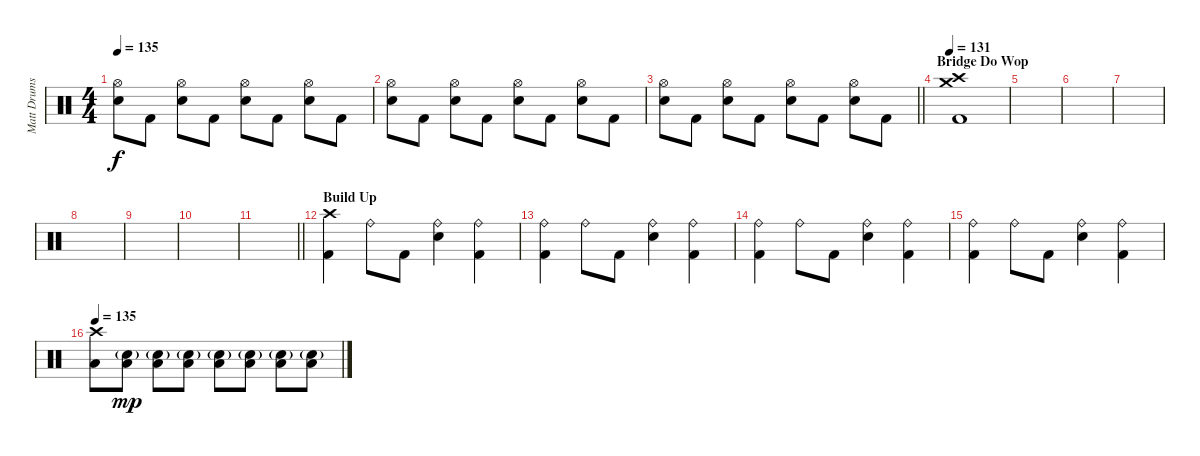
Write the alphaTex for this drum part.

\track ("Matt Drums" "Matt Drums") {instrument percussion}
\staff {score}
\articulation defaults
\ts (4 4)
\tempo 135
\clef neutral
\ks c
("Hi-Hat (open)" "Snare (hit) 2").8{dy f} "Kick (hit) 2".8 ("Hi-Hat (open)" "Snare (hit) 2").8 "Kick (hit) 2".8 ("Hi-Hat (open)" "Snare (hit) 2").8 "Kick (hit) 2".8 ("Hi-Hat (open)" "Snare (hit) 2").8 "Kick (hit) 2".8 |
("Hi-Hat (open)" "Snare (hit) 2").8 "Kick (hit) 2".8 ("Hi-Hat (open)" "Snare (hit) 2").8 "Kick (hit) 2".8 ("Hi-Hat (open)" "Snare (hit) 2").8 "Kick (hit) 2".8 ("Hi-Hat (open)" "Snare (hit) 2").8 "Kick (hit) 2".8 |
\barLineRight lightlight
("Hi-Hat (open)" "Snare (hit) 2").8 "Kick (hit) 2".8 ("Hi-Hat (open)" "Snare (hit) 2").8 "Kick (hit) 2".8 ("Hi-Hat (open)" "Snare (hit) 2").8 "Kick (hit) 2".8 ("Hi-Hat (open)" "Snare (hit) 2").8 "Kick (hit) 2".8 |
\section ("" "Bridge Do Wop")
\tempo 131
("Crash medium (hit)" "Crash high (hit)" "Kick (hit) 2").1 |
|
|
|
|
|
|
\barLineRight lightlight
|
\section ("" "Build Up")
("Crash high (hit)" "Kick (hit) 2").4{volume 7} "Ride (bell)".8 "Kick (hit) 2".8 ("Ride (bell)" "Snare (hit) 2").4 ("Ride (bell)" "Kick (hit) 2").4 |
("Ride (bell)" "Kick (hit) 2").4 "Ride (bell)".8 "Kick (hit) 2".8 ("Ride (bell)" "Snare (hit) 2").4 ("Ride (bell)" "Kick (hit) 2").4 |
("Ride (bell)" "Kick (hit) 2").4 "Ride (bell)".8 "Kick (hit) 2".8 ("Ride (bell)" "Snare (hit) 2").4 ("Ride (bell)" "Kick (hit) 2").4 |
("Ride (bell)" "Kick (hit) 2").4 "Ride (bell)".8 "Kick (hit) 2".8 ("Ride (bell)" "Snare (hit) 2").4 ("Ride (bell)" "Kick (hit) 2").4 |
\tempo 135
("Crash high (hit)" "Low Floor Tom (hit)").8 ("Snare (hit) 2"{g} "Low Floor Tom (hit)").8{dy mp} ("Snare (hit) 2"{g} "Low Floor Tom (hit)").8 ("Snare (hit) 2"{g} "Low Floor Tom (hit)").8 ("Snare (hit) 2"{g} "Low Floor Tom (hit)").8 ("Snare (hit) 2"{g} "Low Floor Tom (hit)").8 ("Snare (hit) 2"{g} "Low Floor Tom (hit)").8 ("Snare (hit) 2"{g} "Low Floor Tom (hit)").8
